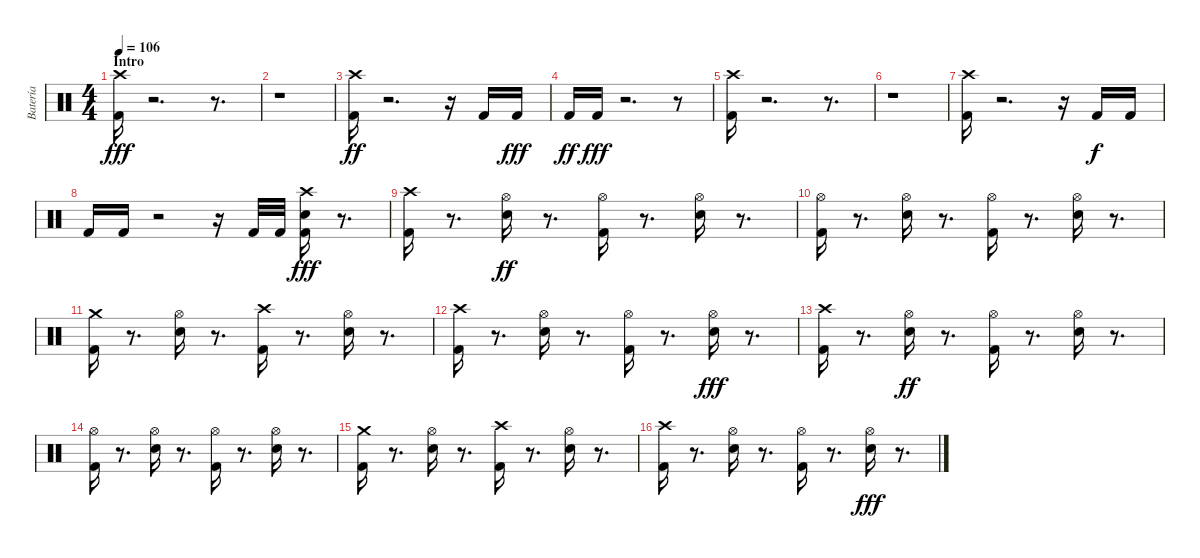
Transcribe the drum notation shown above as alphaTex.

\track ("Batería" "Batería") {instrument percussion}
\staff {score}
\articulation defaults
\ts (4 4)
\section ("" "Intro")
\tempo 106
\clef neutral
\ks c
("Crash high (hit)" "Kick (hit) 2").16{dy fff} r.2{d} r.8{d} |
r.1 |
("Crash high (hit)" "Kick (hit) 2").16{dy ff} r.2{d} r.16 "Kick (hit) 2".16 "Kick (hit) 2".16{dy fff} |
"Kick (hit) 2".16{dy ff} "Kick (hit) 2".16{dy fff} r.2{d} r.8 |
("Crash high (hit)" "Kick (hit) 2").16 r.2{d} r.8{d} |
r.1 |
("Crash high (hit)" "Kick (hit) 2").16 r.2{d} r.16 "Kick (hit) 2".16{dy f} "Kick (hit) 2".16 |
"Kick (hit) 2".16 "Kick (hit) 2".16 r.2 r.16 "Kick (hit) 2".32 "Kick (hit) 2".32 ("Crash high (hit)" "Electric Snare (hit)" "Kick (hit) 2").16{dy fff} r.8{d} |
("Crash high (hit)" "Kick (hit) 2").16 r.8{d} ("Hi-Hat (open)" "Electric Snare (hit)").16{dy ff} r.8{d} ("Hi-Hat (open)" "Kick (hit) 2").16 r.8{d} ("Hi-Hat (open)" "Electric Snare (hit)").16 r.8{d} |
("Hi-Hat (open)" "Kick (hit) 2").16 r.8{d} ("Hi-Hat (open)" "Electric Snare (hit)").16 r.8{d} ("Hi-Hat (open)" "Kick (hit) 2").16 r.8{d} ("Hi-Hat (open)" "Electric Snare (hit)").16 r.8{d} |
("Crash medium (hit)" "Kick (hit) 2").16 r.8{d} ("Hi-Hat (open)" "Electric Snare (hit)").16 r.8{d} ("Crash high (hit)" "Kick (hit) 2").16 r.8{d} ("Hi-Hat (open)" "Electric Snare (hit)").16 r.8{d} |
("Crash high (hit)" "Kick (hit) 2").16 r.8{d} ("Hi-Hat (open)" "Electric Snare (hit)").16 r.8{d} ("Hi-Hat (open)" "Kick (hit) 2").16 r.8{d} ("Hi-Hat (open)" "Electric Snare (hit)").16{dy fff} r.8{d} |
("Crash high (hit)" "Kick (hit) 2").16 r.8{d} ("Hi-Hat (open)" "Electric Snare (hit)").16{dy ff} r.8{d} ("Hi-Hat (open)" "Kick (hit) 2").16 r.8{d} ("Hi-Hat (open)" "Electric Snare (hit)").16 r.8{d} |
("Hi-Hat (open)" "Kick (hit) 2").16 r.8{d} ("Hi-Hat (open)" "Electric Snare (hit)").16 r.8{d} ("Hi-Hat (open)" "Kick (hit) 2").16 r.8{d} ("Hi-Hat (open)" "Electric Snare (hit)").16 r.8{d} |
("Crash medium (hit)" "Kick (hit) 2").16 r.8{d} ("Hi-Hat (open)" "Electric Snare (hit)").16 r.8{d} ("Crash high (hit)" "Kick (hit) 2").16 r.8{d} ("Hi-Hat (open)" "Electric Snare (hit)").16 r.8{d} |
("Crash high (hit)" "Kick (hit) 2").16 r.8{d} ("Hi-Hat (open)" "Electric Snare (hit)").16 r.8{d} ("Hi-Hat (open)" "Kick (hit) 2").16 r.8{d} ("Hi-Hat (open)" "Electric Snare (hit)").16{dy fff} r.8{d}
